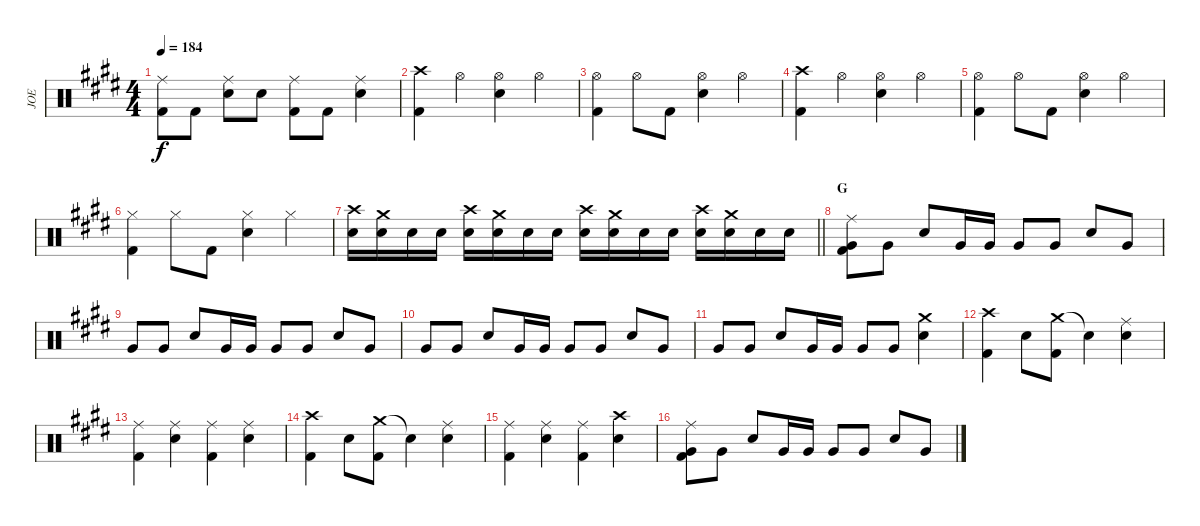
\track ("JOE" "JOE") {instrument percussion}
\staff {score}
\articulation defaults
\ts (4 4)
\tempo 184
\clef neutral
\ks e
("Ride (middle)" "Kick (hit) 2").8{dy f} "Kick (hit) 2".8 ("Ride (middle)" "Snare (hit) 2").8 "Snare (hit) 2".8 ("Ride (middle)" "Kick (hit) 2").8 "Kick (hit) 2".8 ("Ride (middle)" "Snare (hit) 2").4 |
("Crash high (hit)" "Kick (hit) 2").4 "Hi-Hat (open)".4 ("Hi-Hat (open)" "Snare (hit) 2").4 "Hi-Hat (open)".4 |
("Hi-Hat (open)" "Kick (hit) 2").4 "Hi-Hat (open)".8 "Kick (hit) 2".8 ("Hi-Hat (open)" "Snare (hit) 2").4 "Hi-Hat (open)".4 |
("Crash high (hit)" "Kick (hit) 2").4 "Hi-Hat (open)".4 ("Hi-Hat (open)" "Snare (hit) 2").4 "Hi-Hat (open)".4 |
("Hi-Hat (open)" "Kick (hit) 2").4 "Hi-Hat (open)".8 "Kick (hit) 2".8 ("Hi-Hat (open)" "Snare (hit) 2").4 "Hi-Hat (open)".4 |
("Hi-Hat (closed)" "Kick (hit) 2").4 "Hi-Hat (closed)".8 "Kick (hit) 2".8 ("Hi-Hat (closed)" "Snare (hit) 2").4 "Hi-Hat (closed)".4 |
\barLineRight lightlight
("Crash high (hit)" "Snare (hit) 2").16 ("Crash medium (hit)" "Snare (hit) 2").16 "Snare (hit) 2".16 "Snare (hit) 2".16 ("Crash high (hit)" "Snare (hit) 2").16 ("Crash medium (hit)" "Snare (hit) 2").16 "Snare (hit) 2".16 "Snare (hit) 2".16 ("Crash high (hit)" "Snare (hit) 2").16 ("Crash medium (hit)" "Snare (hit) 2").16 "Snare (hit) 2".16 "Snare (hit) 2".16 ("Crash high (hit)" "Snare (hit) 2").16 ("Crash medium (hit)" "Snare (hit) 2").16 "Snare (hit) 2".16 "Snare (hit) 2".16 |
\section ("" "G")
("Ride (middle)" "Very Low Tom (hit)" "Kick (hit) 2").8 "Very Low Tom (hit)".8 "Snare (hit) 2".8 "Very Low Tom (hit)".16 "Very Low Tom (hit)".16 "Very Low Tom (hit)".8 "Very Low Tom (hit)".8 "Snare (hit) 2".8 "Very Low Tom (hit)".8 |
"Very Low Tom (hit)".8 "Very Low Tom (hit)".8 "Snare (hit) 2".8 "Very Low Tom (hit)".16 "Very Low Tom (hit)".16 "Very Low Tom (hit)".8 "Very Low Tom (hit)".8 "Snare (hit) 2".8 "Very Low Tom (hit)".8 |
"Very Low Tom (hit)".8 "Very Low Tom (hit)".8 "Snare (hit) 2".8 "Very Low Tom (hit)".16 "Very Low Tom (hit)".16 "Very Low Tom (hit)".8 "Very Low Tom (hit)".8 "Snare (hit) 2".8 "Very Low Tom (hit)".8 |
"Very Low Tom (hit)".8 "Very Low Tom (hit)".8 "Snare (hit) 2".8 "Very Low Tom (hit)".16 "Very Low Tom (hit)".16 "Very Low Tom (hit)".8 "Very Low Tom (hit)".8 ("Crash medium (hit)" "Snare (hit) 2").4 |
("Crash high (hit)" "Kick (hit) 2").4 "Snare (hit) 2".8 ("Crash medium (hit)" "Kick (hit) 2").8 "Snare (hit)"{t}.4 ("Ride (middle)" "Snare (hit) 2").4 |
("Ride (middle)" "Kick (hit) 2").4 ("Ride (middle)" "Snare (hit) 2").4 ("Ride (middle)" "Kick (hit) 2").4 ("Ride (middle)" "Snare (hit) 2").4 |
("Crash high (hit)" "Kick (hit) 2").4 "Snare (hit) 2".8 ("Crash medium (hit)" "Kick (hit) 2").8 "Snare (hit)"{t}.4 ("Ride (middle)" "Snare (hit) 2").4 |
("Ride (middle)" "Kick (hit) 2").4 ("Ride (middle)" "Snare (hit) 2").4 ("Ride (middle)" "Kick (hit) 2").4 ("Crash high (hit)" "Snare (hit) 2").4 |
("Ride (middle)" "Very Low Tom (hit)" "Kick (hit) 2").8 "Very Low Tom (hit)".8 "Snare (hit) 2".8 "Very Low Tom (hit)".16 "Very Low Tom (hit)".16 "Very Low Tom (hit)".8 "Very Low Tom (hit)".8 "Snare (hit) 2".8 "Very Low Tom (hit)".8
